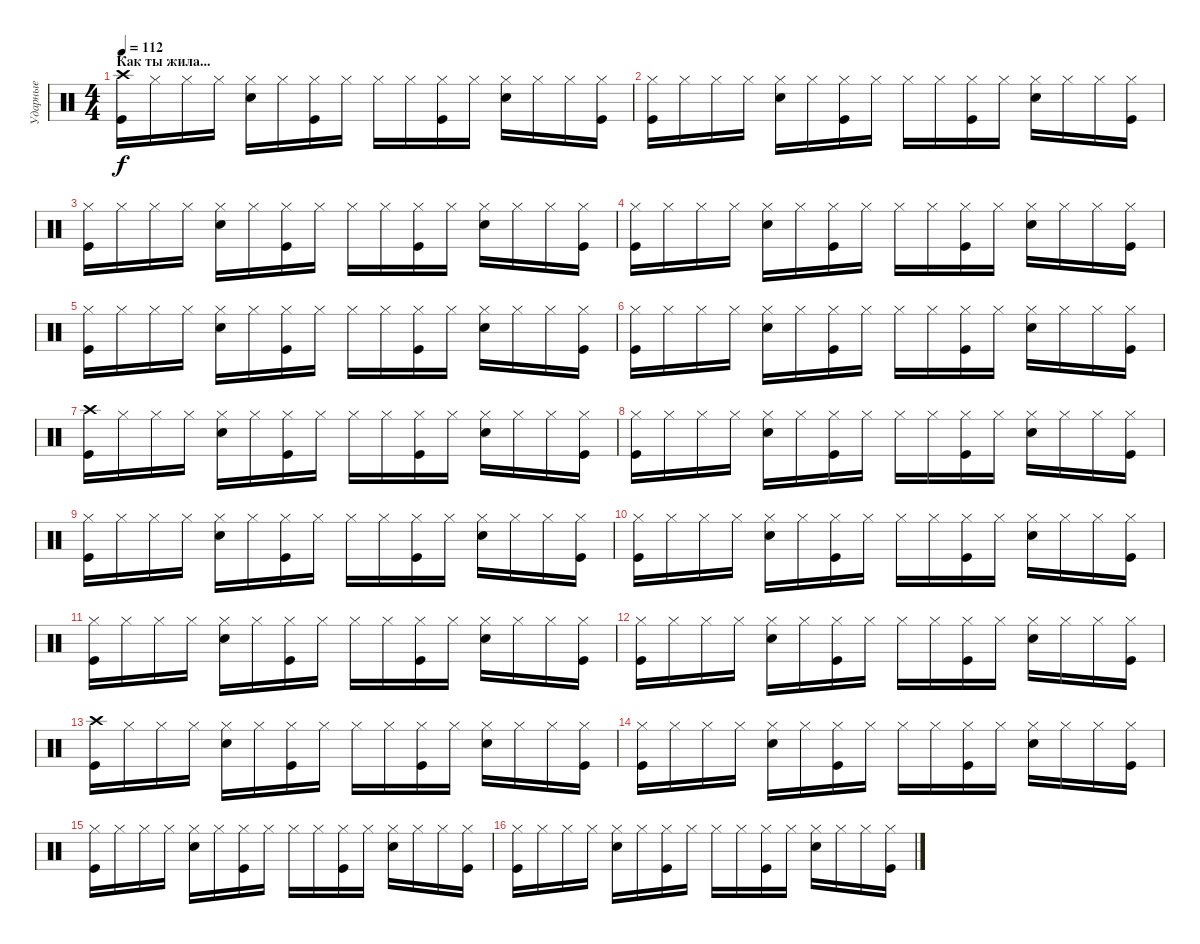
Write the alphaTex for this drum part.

\track ("Ударные" "Ударные") {instrument percussion}
\staff {score}
\articulation defaults
\ts (4 4)
\section ("" "Как ты жила...")
\tempo 112
\clef neutral
\ks c
("Crash high (hit)" "Kick (hit)").16{dy f} "Hi-Hat (closed)".16 "Hi-Hat (closed)".16 "Hi-Hat (closed)".16 ("Hi-Hat (closed)" "Electric Snare (hit)").16 "Hi-Hat (closed)".16 ("Hi-Hat (closed)" "Kick (hit)").16 "Hi-Hat (closed)".16 "Hi-Hat (closed)".16 "Hi-Hat (closed)".16 ("Hi-Hat (closed)" "Kick (hit)").16 "Hi-Hat (closed)".16 ("Hi-Hat (closed)" "Electric Snare (hit)").16 "Hi-Hat (closed)".16 "Hi-Hat (closed)".16 ("Hi-Hat (closed)" "Kick (hit)").16 |
("Hi-Hat (closed)" "Kick (hit)").16 "Hi-Hat (closed)".16 "Hi-Hat (closed)".16 "Hi-Hat (closed)".16 ("Hi-Hat (closed)" "Electric Snare (hit)").16 "Hi-Hat (closed)".16 ("Hi-Hat (closed)" "Kick (hit)").16 "Hi-Hat (closed)".16 "Hi-Hat (closed)".16 "Hi-Hat (closed)".16 ("Hi-Hat (closed)" "Kick (hit)").16 "Hi-Hat (closed)".16 ("Hi-Hat (closed)" "Electric Snare (hit)").16 "Hi-Hat (closed)".16 "Hi-Hat (closed)".16 ("Hi-Hat (closed)" "Kick (hit)").16 |
("Hi-Hat (closed)" "Kick (hit)").16 "Hi-Hat (closed)".16 "Hi-Hat (closed)".16 "Hi-Hat (closed)".16 ("Hi-Hat (closed)" "Electric Snare (hit)").16 "Hi-Hat (closed)".16 ("Hi-Hat (closed)" "Kick (hit)").16 "Hi-Hat (closed)".16 "Hi-Hat (closed)".16 "Hi-Hat (closed)".16 ("Hi-Hat (closed)" "Kick (hit)").16 "Hi-Hat (closed)".16 ("Hi-Hat (closed)" "Electric Snare (hit)").16 "Hi-Hat (closed)".16 "Hi-Hat (closed)".16 ("Hi-Hat (closed)" "Kick (hit)").16 |
("Hi-Hat (closed)" "Kick (hit)").16 "Hi-Hat (closed)".16 "Hi-Hat (closed)".16 "Hi-Hat (closed)".16 ("Hi-Hat (closed)" "Electric Snare (hit)").16 "Hi-Hat (closed)".16 ("Hi-Hat (closed)" "Kick (hit)").16 "Hi-Hat (closed)".16 "Hi-Hat (closed)".16 "Hi-Hat (closed)".16 ("Hi-Hat (closed)" "Kick (hit)").16 "Hi-Hat (closed)".16 ("Hi-Hat (closed)" "Electric Snare (hit)").16 "Hi-Hat (closed)".16 "Hi-Hat (closed)".16 ("Hi-Hat (closed)" "Kick (hit)").16 |
("Hi-Hat (closed)" "Kick (hit)").16 "Hi-Hat (closed)".16 "Hi-Hat (closed)".16 "Hi-Hat (closed)".16 ("Hi-Hat (closed)" "Electric Snare (hit)").16 "Hi-Hat (closed)".16 ("Hi-Hat (closed)" "Kick (hit)").16 "Hi-Hat (closed)".16 "Hi-Hat (closed)".16 "Hi-Hat (closed)".16 ("Hi-Hat (closed)" "Kick (hit)").16 "Hi-Hat (closed)".16 ("Hi-Hat (closed)" "Electric Snare (hit)").16 "Hi-Hat (closed)".16 "Hi-Hat (closed)".16 ("Hi-Hat (closed)" "Kick (hit)").16 |
("Hi-Hat (closed)" "Kick (hit)").16 "Hi-Hat (closed)".16 "Hi-Hat (closed)".16 "Hi-Hat (closed)".16 ("Hi-Hat (closed)" "Electric Snare (hit)").16 "Hi-Hat (closed)".16 ("Hi-Hat (closed)" "Kick (hit)").16 "Hi-Hat (closed)".16 "Hi-Hat (closed)".16 "Hi-Hat (closed)".16 ("Hi-Hat (closed)" "Kick (hit)").16 "Hi-Hat (closed)".16 ("Hi-Hat (closed)" "Electric Snare (hit)").16 "Hi-Hat (closed)".16 "Hi-Hat (closed)".16 ("Hi-Hat (closed)" "Kick (hit)").16 |
("Crash high (hit)" "Kick (hit)").16 "Hi-Hat (closed)".16 "Hi-Hat (closed)".16 "Hi-Hat (closed)".16 ("Hi-Hat (closed)" "Electric Snare (hit)").16 "Hi-Hat (closed)".16 ("Hi-Hat (closed)" "Kick (hit)").16 "Hi-Hat (closed)".16 "Hi-Hat (closed)".16 "Hi-Hat (closed)".16 ("Hi-Hat (closed)" "Kick (hit)").16 "Hi-Hat (closed)".16 ("Hi-Hat (closed)" "Electric Snare (hit)").16 "Hi-Hat (closed)".16 "Hi-Hat (closed)".16 ("Hi-Hat (closed)" "Kick (hit)").16 |
("Hi-Hat (closed)" "Kick (hit)").16 "Hi-Hat (closed)".16 "Hi-Hat (closed)".16 "Hi-Hat (closed)".16 ("Hi-Hat (closed)" "Electric Snare (hit)").16 "Hi-Hat (closed)".16 ("Hi-Hat (closed)" "Kick (hit)").16 "Hi-Hat (closed)".16 "Hi-Hat (closed)".16 "Hi-Hat (closed)".16 ("Hi-Hat (closed)" "Kick (hit)").16 "Hi-Hat (closed)".16 ("Hi-Hat (closed)" "Electric Snare (hit)").16 "Hi-Hat (closed)".16 "Hi-Hat (closed)".16 ("Hi-Hat (closed)" "Kick (hit)").16 |
("Hi-Hat (closed)" "Kick (hit)").16 "Hi-Hat (closed)".16 "Hi-Hat (closed)".16 "Hi-Hat (closed)".16 ("Hi-Hat (closed)" "Electric Snare (hit)").16 "Hi-Hat (closed)".16 ("Hi-Hat (closed)" "Kick (hit)").16 "Hi-Hat (closed)".16 "Hi-Hat (closed)".16 "Hi-Hat (closed)".16 ("Hi-Hat (closed)" "Kick (hit)").16 "Hi-Hat (closed)".16 ("Hi-Hat (closed)" "Electric Snare (hit)").16 "Hi-Hat (closed)".16 "Hi-Hat (closed)".16 ("Hi-Hat (closed)" "Kick (hit)").16 |
("Hi-Hat (closed)" "Kick (hit)").16 "Hi-Hat (closed)".16 "Hi-Hat (closed)".16 "Hi-Hat (closed)".16 ("Hi-Hat (closed)" "Electric Snare (hit)").16 "Hi-Hat (closed)".16 ("Hi-Hat (closed)" "Kick (hit)").16 "Hi-Hat (closed)".16 "Hi-Hat (closed)".16 "Hi-Hat (closed)".16 ("Hi-Hat (closed)" "Kick (hit)").16 "Hi-Hat (closed)".16 ("Hi-Hat (closed)" "Electric Snare (hit)").16 "Hi-Hat (closed)".16 "Hi-Hat (closed)".16 ("Hi-Hat (closed)" "Kick (hit)").16 |
("Hi-Hat (closed)" "Kick (hit)").16 "Hi-Hat (closed)".16 "Hi-Hat (closed)".16 "Hi-Hat (closed)".16 ("Hi-Hat (closed)" "Electric Snare (hit)").16 "Hi-Hat (closed)".16 ("Hi-Hat (closed)" "Kick (hit)").16 "Hi-Hat (closed)".16 "Hi-Hat (closed)".16 "Hi-Hat (closed)".16 ("Hi-Hat (closed)" "Kick (hit)").16 "Hi-Hat (closed)".16 ("Hi-Hat (closed)" "Electric Snare (hit)").16 "Hi-Hat (closed)".16 "Hi-Hat (closed)".16 ("Hi-Hat (closed)" "Kick (hit)").16 |
("Hi-Hat (closed)" "Kick (hit)").16 "Hi-Hat (closed)".16 "Hi-Hat (closed)".16 "Hi-Hat (closed)".16 ("Hi-Hat (closed)" "Electric Snare (hit)").16 "Hi-Hat (closed)".16 ("Hi-Hat (closed)" "Kick (hit)").16 "Hi-Hat (closed)".16 "Hi-Hat (closed)".16 "Hi-Hat (closed)".16 ("Hi-Hat (closed)" "Kick (hit)").16 "Hi-Hat (closed)".16 ("Hi-Hat (closed)" "Electric Snare (hit)").16 "Hi-Hat (closed)".16 "Hi-Hat (closed)".16 ("Hi-Hat (closed)" "Kick (hit)").16 |
("Crash high (hit)" "Kick (hit)").16 "Hi-Hat (closed)".16 "Hi-Hat (closed)".16 "Hi-Hat (closed)".16 ("Hi-Hat (closed)" "Electric Snare (hit)").16 "Hi-Hat (closed)".16 ("Hi-Hat (closed)" "Kick (hit)").16 "Hi-Hat (closed)".16 "Hi-Hat (closed)".16 "Hi-Hat (closed)".16 ("Hi-Hat (closed)" "Kick (hit)").16 "Hi-Hat (closed)".16 ("Hi-Hat (closed)" "Electric Snare (hit)").16 "Hi-Hat (closed)".16 "Hi-Hat (closed)".16 ("Hi-Hat (closed)" "Kick (hit)").16 |
("Hi-Hat (closed)" "Kick (hit)").16 "Hi-Hat (closed)".16 "Hi-Hat (closed)".16 "Hi-Hat (closed)".16 ("Hi-Hat (closed)" "Electric Snare (hit)").16 "Hi-Hat (closed)".16 ("Hi-Hat (closed)" "Kick (hit)").16 "Hi-Hat (closed)".16 "Hi-Hat (closed)".16 "Hi-Hat (closed)".16 ("Hi-Hat (closed)" "Kick (hit)").16 "Hi-Hat (closed)".16 ("Hi-Hat (closed)" "Electric Snare (hit)").16 "Hi-Hat (closed)".16 "Hi-Hat (closed)".16 ("Hi-Hat (closed)" "Kick (hit)").16 |
("Hi-Hat (closed)" "Kick (hit)").16 "Hi-Hat (closed)".16 "Hi-Hat (closed)".16 "Hi-Hat (closed)".16 ("Hi-Hat (closed)" "Electric Snare (hit)").16 "Hi-Hat (closed)".16 ("Hi-Hat (closed)" "Kick (hit)").16 "Hi-Hat (closed)".16 "Hi-Hat (closed)".16 "Hi-Hat (closed)".16 ("Hi-Hat (closed)" "Kick (hit)").16 "Hi-Hat (closed)".16 ("Hi-Hat (closed)" "Electric Snare (hit)").16 "Hi-Hat (closed)".16 "Hi-Hat (closed)".16 ("Hi-Hat (closed)" "Kick (hit)").16 |
("Hi-Hat (closed)" "Kick (hit)").16 "Hi-Hat (closed)".16 "Hi-Hat (closed)".16 "Hi-Hat (closed)".16 ("Hi-Hat (closed)" "Electric Snare (hit)").16 "Hi-Hat (closed)".16 ("Hi-Hat (closed)" "Kick (hit)").16 "Hi-Hat (closed)".16 "Hi-Hat (closed)".16 "Hi-Hat (closed)".16 ("Hi-Hat (closed)" "Kick (hit)").16 "Hi-Hat (closed)".16 ("Hi-Hat (closed)" "Electric Snare (hit)").16 "Hi-Hat (closed)".16 "Hi-Hat (closed)".16 ("Hi-Hat (closed)" "Kick (hit)").16
